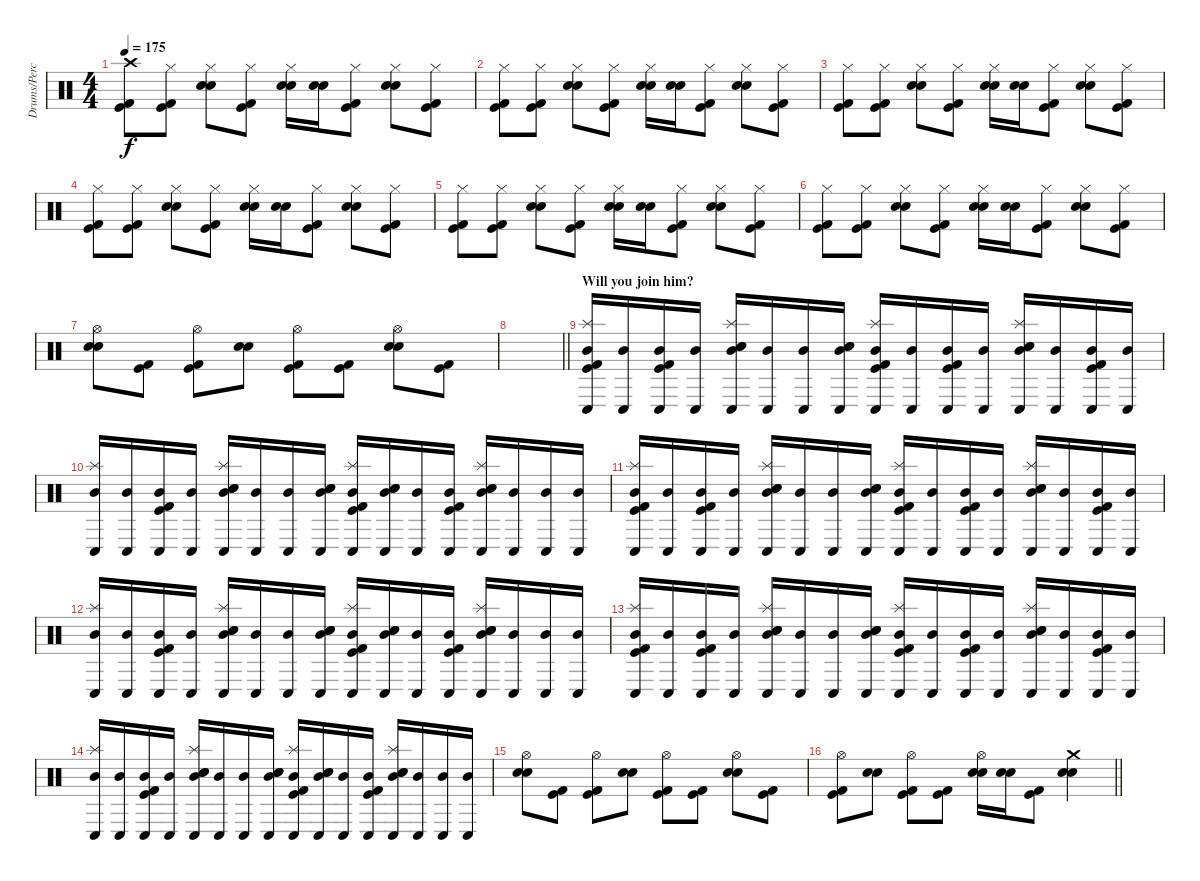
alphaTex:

\track ("Drums/Percussion" "Drums/Perc") {instrument percussion}
\staff {score}
\articulation defaults
\ts (4 4)
\tempo 175
\clef neutral
\ks c
("Crash high (hit)" "Kick (hit)" "Kick (hit) 2").8{dy f} ("Hi-Hat (closed)" "Kick (hit)" "Kick (hit) 2").8 ("Hi-Hat (closed)" "Electric Snare (hit)" "Snare (hit) 2").8 ("Hi-Hat (closed)" "Kick (hit)" "Kick (hit) 2").8 ("Hi-Hat (closed)" "Electric Snare (hit)" "Snare (hit) 2").16 ("Electric Snare (hit)" "Snare (hit) 2").16 ("Hi-Hat (closed)" "Kick (hit)" "Kick (hit) 2").8 ("Hi-Hat (closed)" "Electric Snare (hit)" "Snare (hit) 2").8 ("Hi-Hat (closed)" "Kick (hit)" "Kick (hit) 2").8 |
("Hi-Hat (closed)" "Kick (hit)" "Kick (hit) 2").8 ("Hi-Hat (closed)" "Kick (hit)" "Kick (hit) 2").8 ("Hi-Hat (closed)" "Electric Snare (hit)" "Snare (hit) 2").8 ("Hi-Hat (closed)" "Kick (hit)" "Kick (hit) 2").8 ("Hi-Hat (closed)" "Electric Snare (hit)" "Snare (hit) 2").16 ("Electric Snare (hit)" "Snare (hit) 2").16 ("Hi-Hat (closed)" "Kick (hit)" "Kick (hit) 2").8 ("Hi-Hat (closed)" "Electric Snare (hit)" "Snare (hit) 2").8 ("Hi-Hat (closed)" "Kick (hit)" "Kick (hit) 2").8 |
("Hi-Hat (closed)" "Kick (hit)" "Kick (hit) 2").8 ("Hi-Hat (closed)" "Kick (hit)" "Kick (hit) 2").8 ("Hi-Hat (closed)" "Electric Snare (hit)" "Snare (hit) 2").8 ("Hi-Hat (closed)" "Kick (hit)" "Kick (hit) 2").8 ("Hi-Hat (closed)" "Electric Snare (hit)" "Snare (hit) 2").16 ("Electric Snare (hit)" "Snare (hit) 2").16 ("Hi-Hat (closed)" "Kick (hit)" "Kick (hit) 2").8 ("Hi-Hat (closed)" "Electric Snare (hit)" "Snare (hit) 2").8 ("Hi-Hat (closed)" "Kick (hit)" "Kick (hit) 2").8 |
("Hi-Hat (closed)" "Kick (hit)" "Kick (hit) 2").8 ("Hi-Hat (closed)" "Kick (hit)" "Kick (hit) 2").8 ("Hi-Hat (closed)" "Electric Snare (hit)" "Snare (hit) 2").8 ("Hi-Hat (closed)" "Kick (hit)" "Kick (hit) 2").8 ("Hi-Hat (closed)" "Electric Snare (hit)" "Snare (hit) 2").16 ("Electric Snare (hit)" "Snare (hit) 2").16 ("Hi-Hat (closed)" "Kick (hit)" "Kick (hit) 2").8 ("Hi-Hat (closed)" "Electric Snare (hit)" "Snare (hit) 2").8 ("Hi-Hat (closed)" "Kick (hit)" "Kick (hit) 2").8 |
("Hi-Hat (closed)" "Kick (hit)" "Kick (hit) 2").8 ("Hi-Hat (closed)" "Kick (hit)" "Kick (hit) 2").8 ("Hi-Hat (closed)" "Electric Snare (hit)" "Snare (hit) 2").8 ("Hi-Hat (closed)" "Kick (hit)" "Kick (hit) 2").8 ("Hi-Hat (closed)" "Electric Snare (hit)" "Snare (hit) 2").16 ("Electric Snare (hit)" "Snare (hit) 2").16 ("Hi-Hat (closed)" "Kick (hit)" "Kick (hit) 2").8 ("Hi-Hat (closed)" "Electric Snare (hit)" "Snare (hit) 2").8 ("Hi-Hat (closed)" "Kick (hit)" "Kick (hit) 2").8 |
("Hi-Hat (closed)" "Kick (hit)" "Kick (hit) 2").8 ("Hi-Hat (closed)" "Kick (hit)" "Kick (hit) 2").8 ("Hi-Hat (closed)" "Electric Snare (hit)" "Snare (hit) 2").8 ("Hi-Hat (closed)" "Kick (hit)" "Kick (hit) 2").8 ("Hi-Hat (closed)" "Electric Snare (hit)" "Snare (hit) 2").16 ("Electric Snare (hit)" "Snare (hit) 2").16 ("Hi-Hat (closed)" "Kick (hit)" "Kick (hit) 2").8 ("Hi-Hat (closed)" "Electric Snare (hit)" "Snare (hit) 2").8 ("Hi-Hat (closed)" "Kick (hit)" "Kick (hit) 2").8 |
("Hi-Hat (open)" "Electric Snare (hit)" "Snare (hit) 2").8 ("Kick (hit)" "Kick (hit) 2").8 ("Hi-Hat (open)" "Kick (hit)" "Kick (hit) 2").8 ("Electric Snare (hit)" "Snare (hit) 2").8 ("Hi-Hat (open)" "Kick (hit)" "Kick (hit) 2").8 ("Kick (hit)" "Kick (hit) 2").8 ("Hi-Hat (open)" "Electric Snare (hit)" "Snare (hit) 2").8 ("Kick (hit)" "Kick (hit) 2").8 |
\barLineRight lightlight
|
\section ("" "Will you join him?")
("Splash (hit)" "Conga low (hit)" "Mid Tom (hit)" "Kick (hit)" "Kick (hit) 2").16 ("Conga low (hit)" "Mid Tom (hit)").16 ("Conga low (hit)" "Mid Tom (hit)" "Kick (hit)" "Kick (hit) 2").16 ("Conga low (hit)" "Mid Tom (hit)").16 ("Splash (hit)" "Conga low (hit)" "Electric Snare (hit)" "Snare (hit) 2" "Mid Tom (hit)").16 ("Conga low (hit)" "Mid Tom (hit)").16 ("Conga low (hit)" "Mid Tom (hit)").16 ("Conga low (hit)" "Electric Snare (hit)" "Snare (hit) 2" "Mid Tom (hit)").16 ("Splash (hit)" "Conga low (hit)" "Mid Tom (hit)" "Kick (hit)" "Kick (hit) 2").16 ("Conga low (hit)" "Mid Tom (hit)").16 ("Conga low (hit)" "Mid Tom (hit)" "Kick (hit)" "Kick (hit) 2").16 ("Conga low (hit)" "Mid Tom (hit)").16 ("Splash (hit)" "Conga low (hit)" "Electric Snare (hit)" "Snare (hit) 2" "Mid Tom (hit)").16 ("Conga low (hit)" "Mid Tom (hit)").16 ("Conga low (hit)" "Mid Tom (hit)" "Kick (hit)" "Kick (hit) 2").16 ("Conga low (hit)" "Mid Tom (hit)").16 |
("Splash (hit)" "Conga low (hit)" "Mid Tom (hit)").16 ("Conga low (hit)" "Mid Tom (hit)").16 ("Conga low (hit)" "Mid Tom (hit)" "Kick (hit)" "Kick (hit) 2").16 ("Conga low (hit)" "Mid Tom (hit)").16 ("Splash (hit)" "Conga low (hit)" "Electric Snare (hit)" "Snare (hit) 2" "Mid Tom (hit)").16 ("Conga low (hit)" "Mid Tom (hit)").16 ("Conga low (hit)" "Mid Tom (hit)").16 ("Conga low (hit)" "Electric Snare (hit)" "Snare (hit) 2" "Mid Tom (hit)").16 ("Splash (hit)" "Conga low (hit)" "Mid Tom (hit)" "Kick (hit)" "Kick (hit) 2").16 ("Conga low (hit)" "Electric Snare (hit)" "Snare (hit) 2" "Mid Tom (hit)").16 ("Conga low (hit)" "Mid Tom (hit)").16 ("Conga low (hit)" "Mid Tom (hit)" "Kick (hit)" "Kick (hit) 2").16 ("Splash (hit)" "Conga low (hit)" "Electric Snare (hit)" "Snare (hit) 2" "Mid Tom (hit)").16 ("Conga low (hit)" "Mid Tom (hit)").16 ("Conga low (hit)" "Mid Tom (hit)").16 ("Conga low (hit)" "Mid Tom (hit)").16 |
("Splash (hit)" "Conga low (hit)" "Mid Tom (hit)" "Kick (hit)" "Kick (hit) 2").16 ("Conga low (hit)" "Mid Tom (hit)").16 ("Conga low (hit)" "Mid Tom (hit)" "Kick (hit)" "Kick (hit) 2").16 ("Conga low (hit)" "Mid Tom (hit)").16 ("Splash (hit)" "Conga low (hit)" "Electric Snare (hit)" "Snare (hit) 2" "Mid Tom (hit)").16 ("Conga low (hit)" "Mid Tom (hit)").16 ("Conga low (hit)" "Mid Tom (hit)").16 ("Conga low (hit)" "Electric Snare (hit)" "Snare (hit) 2" "Mid Tom (hit)").16 ("Splash (hit)" "Conga low (hit)" "Mid Tom (hit)" "Kick (hit)" "Kick (hit) 2").16 ("Conga low (hit)" "Mid Tom (hit)").16 ("Conga low (hit)" "Mid Tom (hit)" "Kick (hit)" "Kick (hit) 2").16 ("Conga low (hit)" "Mid Tom (hit)").16 ("Splash (hit)" "Conga low (hit)" "Electric Snare (hit)" "Snare (hit) 2" "Mid Tom (hit)").16 ("Conga low (hit)" "Mid Tom (hit)").16 ("Conga low (hit)" "Mid Tom (hit)" "Kick (hit)" "Kick (hit) 2").16 ("Conga low (hit)" "Mid Tom (hit)").16 |
("Splash (hit)" "Conga low (hit)" "Mid Tom (hit)").16 ("Conga low (hit)" "Mid Tom (hit)").16 ("Conga low (hit)" "Mid Tom (hit)" "Kick (hit)" "Kick (hit) 2").16 ("Conga low (hit)" "Mid Tom (hit)").16 ("Splash (hit)" "Conga low (hit)" "Electric Snare (hit)" "Snare (hit) 2" "Mid Tom (hit)").16 ("Conga low (hit)" "Mid Tom (hit)").16 ("Conga low (hit)" "Mid Tom (hit)").16 ("Conga low (hit)" "Electric Snare (hit)" "Snare (hit) 2" "Mid Tom (hit)").16 ("Splash (hit)" "Conga low (hit)" "Mid Tom (hit)" "Kick (hit)" "Kick (hit) 2").16 ("Conga low (hit)" "Electric Snare (hit)" "Snare (hit) 2" "Mid Tom (hit)").16 ("Conga low (hit)" "Mid Tom (hit)").16 ("Conga low (hit)" "Mid Tom (hit)" "Kick (hit)" "Kick (hit) 2").16 ("Splash (hit)" "Conga low (hit)" "Electric Snare (hit)" "Snare (hit) 2" "Mid Tom (hit)").16 ("Conga low (hit)" "Mid Tom (hit)").16 ("Conga low (hit)" "Mid Tom (hit)").16 ("Conga low (hit)" "Mid Tom (hit)").16 |
("Splash (hit)" "Conga low (hit)" "Mid Tom (hit)" "Kick (hit)" "Kick (hit) 2").16 ("Conga low (hit)" "Mid Tom (hit)").16 ("Conga low (hit)" "Mid Tom (hit)" "Kick (hit)" "Kick (hit) 2").16 ("Conga low (hit)" "Mid Tom (hit)").16 ("Splash (hit)" "Conga low (hit)" "Electric Snare (hit)" "Snare (hit) 2" "Mid Tom (hit)").16 ("Conga low (hit)" "Mid Tom (hit)").16 ("Conga low (hit)" "Mid Tom (hit)").16 ("Conga low (hit)" "Electric Snare (hit)" "Snare (hit) 2" "Mid Tom (hit)").16 ("Splash (hit)" "Conga low (hit)" "Mid Tom (hit)" "Kick (hit)" "Kick (hit) 2").16 ("Conga low (hit)" "Mid Tom (hit)").16 ("Conga low (hit)" "Mid Tom (hit)" "Kick (hit)" "Kick (hit) 2").16 ("Conga low (hit)" "Mid Tom (hit)").16 ("Splash (hit)" "Conga low (hit)" "Electric Snare (hit)" "Snare (hit) 2" "Mid Tom (hit)").16 ("Conga low (hit)" "Mid Tom (hit)").16 ("Conga low (hit)" "Mid Tom (hit)" "Kick (hit)" "Kick (hit) 2").16 ("Conga low (hit)" "Mid Tom (hit)").16 |
("Splash (hit)" "Conga low (hit)" "Mid Tom (hit)").16 ("Conga low (hit)" "Mid Tom (hit)").16 ("Conga low (hit)" "Mid Tom (hit)" "Kick (hit)" "Kick (hit) 2").16 ("Conga low (hit)" "Mid Tom (hit)").16 ("Splash (hit)" "Conga low (hit)" "Electric Snare (hit)" "Snare (hit) 2" "Mid Tom (hit)").16 ("Conga low (hit)" "Mid Tom (hit)").16 ("Conga low (hit)" "Mid Tom (hit)").16 ("Conga low (hit)" "Electric Snare (hit)" "Snare (hit) 2" "Mid Tom (hit)").16 ("Splash (hit)" "Conga low (hit)" "Mid Tom (hit)" "Kick (hit)" "Kick (hit) 2").16 ("Conga low (hit)" "Electric Snare (hit)" "Snare (hit) 2" "Mid Tom (hit)").16 ("Conga low (hit)" "Mid Tom (hit)").16 ("Conga low (hit)" "Mid Tom (hit)" "Kick (hit)" "Kick (hit) 2").16 ("Splash (hit)" "Conga low (hit)" "Electric Snare (hit)" "Snare (hit) 2" "Mid Tom (hit)").16 ("Conga low (hit)" "Mid Tom (hit)").16 ("Conga low (hit)" "Mid Tom (hit)").16 ("Conga low (hit)" "Mid Tom (hit)").16 |
("Hi-Hat (open)" "Electric Snare (hit)" "Snare (hit) 2").8 ("Kick (hit)" "Kick (hit) 2").8 ("Hi-Hat (open)" "Kick (hit)" "Kick (hit) 2").8 ("Electric Snare (hit)" "Snare (hit) 2").8 ("Hi-Hat (open)" "Kick (hit)" "Kick (hit) 2").8 ("Kick (hit)" "Kick (hit) 2").8 ("Hi-Hat (open)" "Electric Snare (hit)" "Snare (hit) 2").8 ("Kick (hit)" "Kick (hit) 2").8 |
\barLineRight lightlight
("Hi-Hat (open)" "Kick (hit)" "Kick (hit) 2").8 ("Electric Snare (hit)" "Snare (hit) 2").8 ("Hi-Hat (open)" "Kick (hit)" "Kick (hit) 2").8 ("Kick (hit)" "Kick (hit) 2").8 ("Hi-Hat (open)" "Electric Snare (hit)" "Snare (hit) 2").16 ("Electric Snare (hit)" "Snare (hit) 2").16 ("Kick (hit)" "Kick (hit) 2").8 ("Crash medium (hit)" "Electric Snare (hit)" "Snare (hit) 2").4
